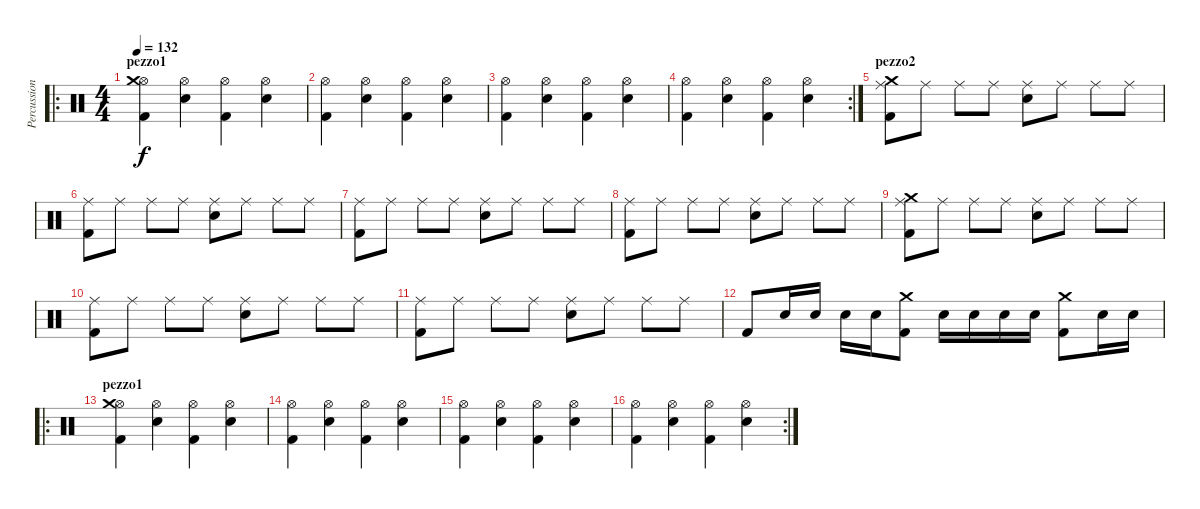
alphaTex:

\track ("Percussioni" "Percussion") {instrument percussion}
\staff {score}
\articulation defaults
\ro
\ts (4 4)
\section ("" "pezzo1")
\tempo 132
\clef neutral
\ks c
("Kick (hit) 2" "Hi-Hat (open)" "Crash medium (hit)").4{dy f} ("Electric Snare (hit)" "Hi-Hat (open)").4 ("Kick (hit) 2" "Hi-Hat (open)").4 ("Electric Snare (hit)" "Hi-Hat (open)").4 |
("Kick (hit) 2" "Hi-Hat (open)").4 ("Electric Snare (hit)" "Hi-Hat (open)").4 ("Kick (hit) 2" "Hi-Hat (open)").4 ("Electric Snare (hit)" "Hi-Hat (open)").4 |
("Kick (hit) 2" "Hi-Hat (open)").4 ("Electric Snare (hit)" "Hi-Hat (open)").4 ("Kick (hit) 2" "Hi-Hat (open)").4 ("Electric Snare (hit)" "Hi-Hat (open)").4 |
\rc 2
("Kick (hit) 2" "Hi-Hat (open)").4 ("Electric Snare (hit)" "Hi-Hat (open)").4 ("Kick (hit) 2" "Hi-Hat (open)").4 ("Electric Snare (hit)" "Hi-Hat (open)").4 |
\section ("" "pezzo2")
("Kick (hit) 2" "Ride (middle)" "Crash medium (hit)").8 "Ride (middle)".8 "Ride (middle)".8 "Ride (middle)".8 ("Electric Snare (hit)" "Ride (middle)").8 "Ride (middle)".8 "Ride (middle)".8 "Ride (middle)".8 |
("Kick (hit) 2" "Ride (middle)").8 "Ride (middle)".8 "Ride (middle)".8 "Ride (middle)".8 ("Electric Snare (hit)" "Ride (middle)").8 "Ride (middle)".8 "Ride (middle)".8 "Ride (middle)".8 |
("Kick (hit) 2" "Ride (middle)").8 "Ride (middle)".8 "Ride (middle)".8 "Ride (middle)".8 ("Electric Snare (hit)" "Ride (middle)").8 "Ride (middle)".8 "Ride (middle)".8 "Ride (middle)".8 |
("Kick (hit) 2" "Ride (middle)").8 "Ride (middle)".8 "Ride (middle)".8 "Ride (middle)".8 ("Electric Snare (hit)" "Ride (middle)").8 "Ride (middle)".8 "Ride (middle)".8 "Ride (middle)".8 |
("Kick (hit) 2" "Ride (middle)" "Crash medium (hit)").8 "Ride (middle)".8 "Ride (middle)".8 "Ride (middle)".8 ("Electric Snare (hit)" "Ride (middle)").8 "Ride (middle)".8 "Ride (middle)".8 "Ride (middle)".8 |
("Kick (hit) 2" "Ride (middle)").8 "Ride (middle)".8 "Ride (middle)".8 "Ride (middle)".8 ("Electric Snare (hit)" "Ride (middle)").8 "Ride (middle)".8 "Ride (middle)".8 "Ride (middle)".8 |
("Kick (hit) 2" "Ride (middle)").8 "Ride (middle)".8 "Ride (middle)".8 "Ride (middle)".8 ("Electric Snare (hit)" "Ride (middle)").8 "Ride (middle)".8 "Ride (middle)".8 "Ride (middle)".8 |
"Kick (hit) 2".8 "Electric Snare (hit)".16 "Electric Snare (hit)".16 "Electric Snare (hit)".16 "Electric Snare (hit)".16 ("Kick (hit) 2" "Crash medium (hit)").8 "Electric Snare (hit)".16 "Electric Snare (hit)".16 "Electric Snare (hit)".16 "Electric Snare (hit)".16 ("Kick (hit) 2" "Crash medium (hit)").8 "Electric Snare (hit)".16 "Electric Snare (hit)".16 |
\ro
\section ("" "pezzo1")
("Kick (hit) 2" "Hi-Hat (open)" "Crash medium (hit)").4 ("Electric Snare (hit)" "Hi-Hat (open)").4 ("Kick (hit) 2" "Hi-Hat (open)").4 ("Electric Snare (hit)" "Hi-Hat (open)").4 |
("Kick (hit) 2" "Hi-Hat (open)").4 ("Electric Snare (hit)" "Hi-Hat (open)").4 ("Kick (hit) 2" "Hi-Hat (open)").4 ("Electric Snare (hit)" "Hi-Hat (open)").4 |
("Kick (hit) 2" "Hi-Hat (open)").4 ("Electric Snare (hit)" "Hi-Hat (open)").4 ("Kick (hit) 2" "Hi-Hat (open)").4 ("Electric Snare (hit)" "Hi-Hat (open)").4 |
\rc 2
("Kick (hit) 2" "Hi-Hat (open)").4 ("Electric Snare (hit)" "Hi-Hat (open)").4 ("Kick (hit) 2" "Hi-Hat (open)").4 ("Electric Snare (hit)" "Hi-Hat (open)").4
